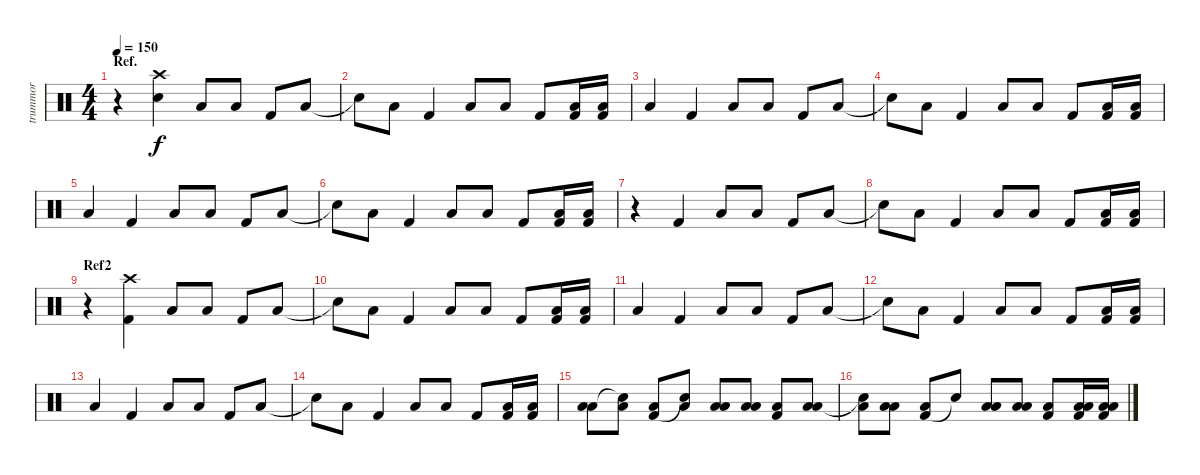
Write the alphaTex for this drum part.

\track ("trummor" "trummor") {instrument percussion}
\staff {score}
\articulation defaults
\ts (4 4)
\section ("" "Ref.")
\tempo 150
\clef neutral
\ks c
r.4{dy f} ("Crash high (hit)" "Snare (hit) 2").4 "Low Floor Tom (hit)".8 "Low Floor Tom (hit)".8 "Kick (hit) 2".8 "Low Floor Tom (hit)".8 |
"Snare (hit)"{t}.8 "Low Floor Tom (hit)".8 "Kick (hit) 2".4 "Low Floor Tom (hit)".8 "Low Floor Tom (hit)".8 "Kick (hit) 2".8 ("Kick (hit) 2" "Low Floor Tom (hit)").16 ("Kick (hit) 2" "Low Floor Tom (hit)").16 |
"Low Floor Tom (hit)".4 "Kick (hit) 2".4 "Low Floor Tom (hit)".8 "Low Floor Tom (hit)".8 "Kick (hit) 2".8 "Low Floor Tom (hit)".8 |
"Snare (hit)"{t}.8 "Low Floor Tom (hit)".8 "Kick (hit) 2".4 "Low Floor Tom (hit)".8 "Low Floor Tom (hit)".8 "Kick (hit) 2".8 ("Kick (hit) 2" "Low Floor Tom (hit)").16 ("Kick (hit) 2" "Low Floor Tom (hit)").16 |
"Low Floor Tom (hit)".4 "Kick (hit) 2".4 "Low Floor Tom (hit)".8 "Low Floor Tom (hit)".8 "Kick (hit) 2".8 "Low Floor Tom (hit)".8 |
"Snare (hit)"{t}.8 "Low Floor Tom (hit)".8 "Kick (hit) 2".4 "Low Floor Tom (hit)".8 "Low Floor Tom (hit)".8 "Kick (hit) 2".8 ("Kick (hit) 2" "Low Floor Tom (hit)").16 ("Kick (hit) 2" "Low Floor Tom (hit)").16 |
r.4 "Kick (hit) 2".4 "Low Floor Tom (hit)".8 "Low Floor Tom (hit)".8 "Kick (hit) 2".8 "Low Floor Tom (hit)".8 |
"Snare (hit)"{t}.8 "Low Floor Tom (hit)".8 "Kick (hit) 2".4 "Low Floor Tom (hit)".8 "Low Floor Tom (hit)".8 "Kick (hit) 2".8 ("Kick (hit) 2" "Low Floor Tom (hit)").16 ("Kick (hit) 2" "Low Floor Tom (hit)").16 |
\section ("" "Ref2")
r.4 ("Crash high (hit)" "Kick (hit) 2").4 "Low Floor Tom (hit)".8 "Low Floor Tom (hit)".8 "Kick (hit) 2".8 "Low Floor Tom (hit)".8 |
"Snare (hit)"{t}.8 "Low Floor Tom (hit)".8 "Kick (hit) 2".4 "Low Floor Tom (hit)".8 "Low Floor Tom (hit)".8 "Kick (hit) 2".8 ("Kick (hit) 2" "Low Floor Tom (hit)").16 ("Kick (hit) 2" "Low Floor Tom (hit)").16 |
"Low Floor Tom (hit)".4 "Kick (hit) 2".4 "Low Floor Tom (hit)".8 "Low Floor Tom (hit)".8 "Kick (hit) 2".8 "Low Floor Tom (hit)".8 |
"Snare (hit)"{t}.8 "Low Floor Tom (hit)".8 "Kick (hit) 2".4 "Low Floor Tom (hit)".8 "Low Floor Tom (hit)".8 "Kick (hit) 2".8 ("Kick (hit) 2" "Low Floor Tom (hit)").16 ("Kick (hit) 2" "Low Floor Tom (hit)").16 |
"Low Floor Tom (hit)".4 "Kick (hit) 2".4 "Low Floor Tom (hit)".8 "Low Floor Tom (hit)".8 "Kick (hit) 2".8 "Low Floor Tom (hit)".8 |
"Snare (hit)"{t}.8 "Low Floor Tom (hit)".8 "Kick (hit) 2".4 "Low Floor Tom (hit)".8 "Low Floor Tom (hit)".8 "Kick (hit) 2".8 ("Kick (hit) 2" "Low Floor Tom (hit)").16 ("Kick (hit) 2" "Low Floor Tom (hit)").16 |
("Low Floor Tom (hit)" "Low Floor Tom (hit)").8 ("Snare (hit)"{t} "Low Floor Tom (hit)").8 ("Kick (hit) 2" "Low Floor Tom (hit)").8 ("Snare (hit)"{t} "Low Floor Tom (hit)").8 ("Low Floor Tom (hit)" "Low Floor Tom (hit)").8 ("Low Floor Tom (hit)" "Low Floor Tom (hit)").8 ("Kick (hit) 2" "Low Floor Tom (hit)").8 ("Low Floor Tom (hit)" "Low Floor Tom (hit)").8 |
("Snare (hit)"{t} "Low Tom (hit)").8 ("Low Floor Tom (hit)" "Low Tom (hit)").8 ("Kick (hit) 2" "Low Tom (hit)").8 "Snare (hit)"{t}.8 ("Low Floor Tom (hit)" "Low Tom (hit)").8 ("Low Floor Tom (hit)" "Low Tom (hit)").8 ("Kick (hit) 2" "Low Tom (hit)").8 ("Kick (hit) 2" "Low Floor Tom (hit)" "Low Tom (hit)").16 ("Kick (hit) 2" "Low Floor Tom (hit)" "Low Tom (hit)").16
